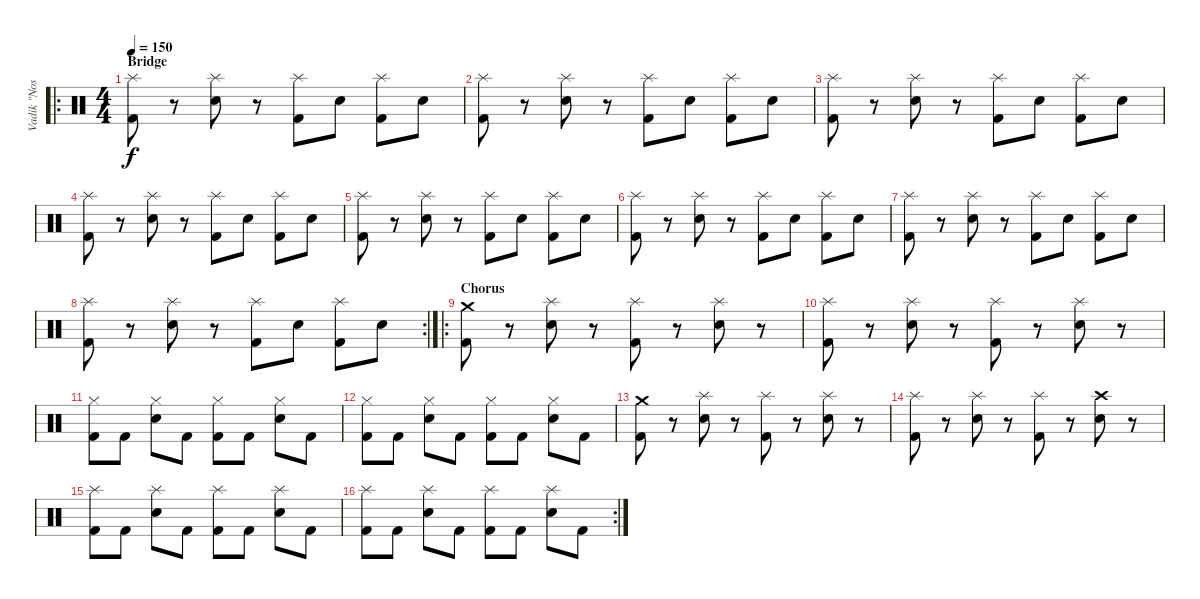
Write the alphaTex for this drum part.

\track ("Vadik \"Nos\"" "Vadik \"Nos") {instrument percussion}
\staff {score}
\articulation defaults
\ro
\ts (4 4)
\section ("" "Bridge")
\tempo 150
\clef neutral
\ks c
("Splash (hit)" "Kick (hit) 2").8{dy f} r.8 ("Splash (hit)" "Electric Snare (hit)").8 r.8 ("Splash (hit)" "Kick (hit) 2").8 "Electric Snare (hit)".8 ("Splash (hit)" "Kick (hit) 2").8 "Electric Snare (hit)".8 |
("Splash (hit)" "Kick (hit) 2").8 r.8 ("Splash (hit)" "Electric Snare (hit)").8 r.8 ("Splash (hit)" "Kick (hit) 2").8 "Electric Snare (hit)".8 ("Splash (hit)" "Kick (hit) 2").8 "Electric Snare (hit)".8 |
("Splash (hit)" "Kick (hit) 2").8 r.8 ("Splash (hit)" "Electric Snare (hit)").8 r.8 ("Splash (hit)" "Kick (hit) 2").8 "Electric Snare (hit)".8 ("Splash (hit)" "Kick (hit) 2").8 "Electric Snare (hit)".8 |
("Splash (hit)" "Kick (hit) 2").8 r.8 ("Splash (hit)" "Electric Snare (hit)").8 r.8 ("Splash (hit)" "Kick (hit) 2").8 "Electric Snare (hit)".8 ("Splash (hit)" "Kick (hit) 2").8 "Electric Snare (hit)".8 |
("Splash (hit)" "Kick (hit) 2").8 r.8 ("Splash (hit)" "Electric Snare (hit)").8 r.8 ("Splash (hit)" "Kick (hit) 2").8 "Electric Snare (hit)".8 ("Splash (hit)" "Kick (hit) 2").8 "Electric Snare (hit)".8 |
("Splash (hit)" "Kick (hit) 2").8 r.8 ("Splash (hit)" "Electric Snare (hit)").8 r.8 ("Splash (hit)" "Kick (hit) 2").8 "Electric Snare (hit)".8 ("Splash (hit)" "Kick (hit) 2").8 "Electric Snare (hit)".8 |
("Splash (hit)" "Kick (hit) 2").8 r.8 ("Splash (hit)" "Electric Snare (hit)").8 r.8 ("Splash (hit)" "Kick (hit) 2").8 "Electric Snare (hit)".8 ("Splash (hit)" "Kick (hit) 2").8 "Electric Snare (hit)".8 |
\rc 2
("Splash (hit)" "Kick (hit) 2").8 r.8 ("Splash (hit)" "Electric Snare (hit)").8 r.8 ("Splash (hit)" "Kick (hit) 2").8 "Electric Snare (hit)".8 ("Splash (hit)" "Kick (hit) 2").8 "Electric Snare (hit)".8 |
\ro
\section ("" "Chorus")
("Kick (hit) 2" "Crash medium (hit)").8 r.8 ("Electric Snare (hit)" "Splash (hit)").8 r.8 ("Kick (hit) 2" "Splash (hit)").8 r.8 ("Electric Snare (hit)" "Splash (hit)").8 r.8 |
("Kick (hit) 2" "Splash (hit)").8 r.8 ("Electric Snare (hit)" "Splash (hit)").8 r.8 ("Kick (hit) 2" "Splash (hit)").8 r.8 ("Electric Snare (hit)" "Splash (hit)").8 r.8 |
("Kick (hit) 2" "Hi-Hat (closed)").8 "Kick (hit) 2".8 ("Electric Snare (hit)" "Hi-Hat (closed)").8 "Kick (hit) 2".8 ("Kick (hit) 2" "Hi-Hat (closed)").8 "Kick (hit) 2".8 ("Electric Snare (hit)" "Hi-Hat (closed)").8 "Kick (hit) 2".8 |
("Kick (hit) 2" "Hi-Hat (closed)").8 "Kick (hit) 2".8 ("Electric Snare (hit)" "Hi-Hat (closed)").8 "Kick (hit) 2".8 ("Kick (hit) 2" "Hi-Hat (closed)").8 "Kick (hit) 2".8 ("Electric Snare (hit)" "Hi-Hat (closed)").8 "Kick (hit) 2".8 |
("Kick (hit) 2" "Crash medium (hit)").8 r.8 ("Electric Snare (hit)" "Splash (hit)").8 r.8 ("Kick (hit) 2" "Splash (hit)").8 r.8 ("Electric Snare (hit)" "Splash (hit)").8 r.8 |
("Kick (hit) 2" "Splash (hit)").8 r.8 ("Electric Snare (hit)" "Splash (hit)").8 r.8 ("Kick (hit) 2" "Splash (hit)").8 r.8 ("Electric Snare (hit)" "Crash high (hit)").8 r.8 |
("Kick (hit) 2" "Splash (hit)").8 "Kick (hit) 2".8 ("Electric Snare (hit)" "Splash (hit)").8 "Kick (hit) 2".8 ("Kick (hit) 2" "Splash (hit)").8 "Kick (hit) 2".8 ("Electric Snare (hit)" "Splash (hit)").8 "Kick (hit) 2".8 |
\rc 2
("Kick (hit) 2" "Splash (hit)").8 "Kick (hit) 2".8 ("Electric Snare (hit)" "Splash (hit)").8 "Kick (hit) 2".8 ("Kick (hit) 2" "Splash (hit)").8 "Kick (hit) 2".8 ("Electric Snare (hit)" "Splash (hit)").8 "Kick (hit) 2".8
